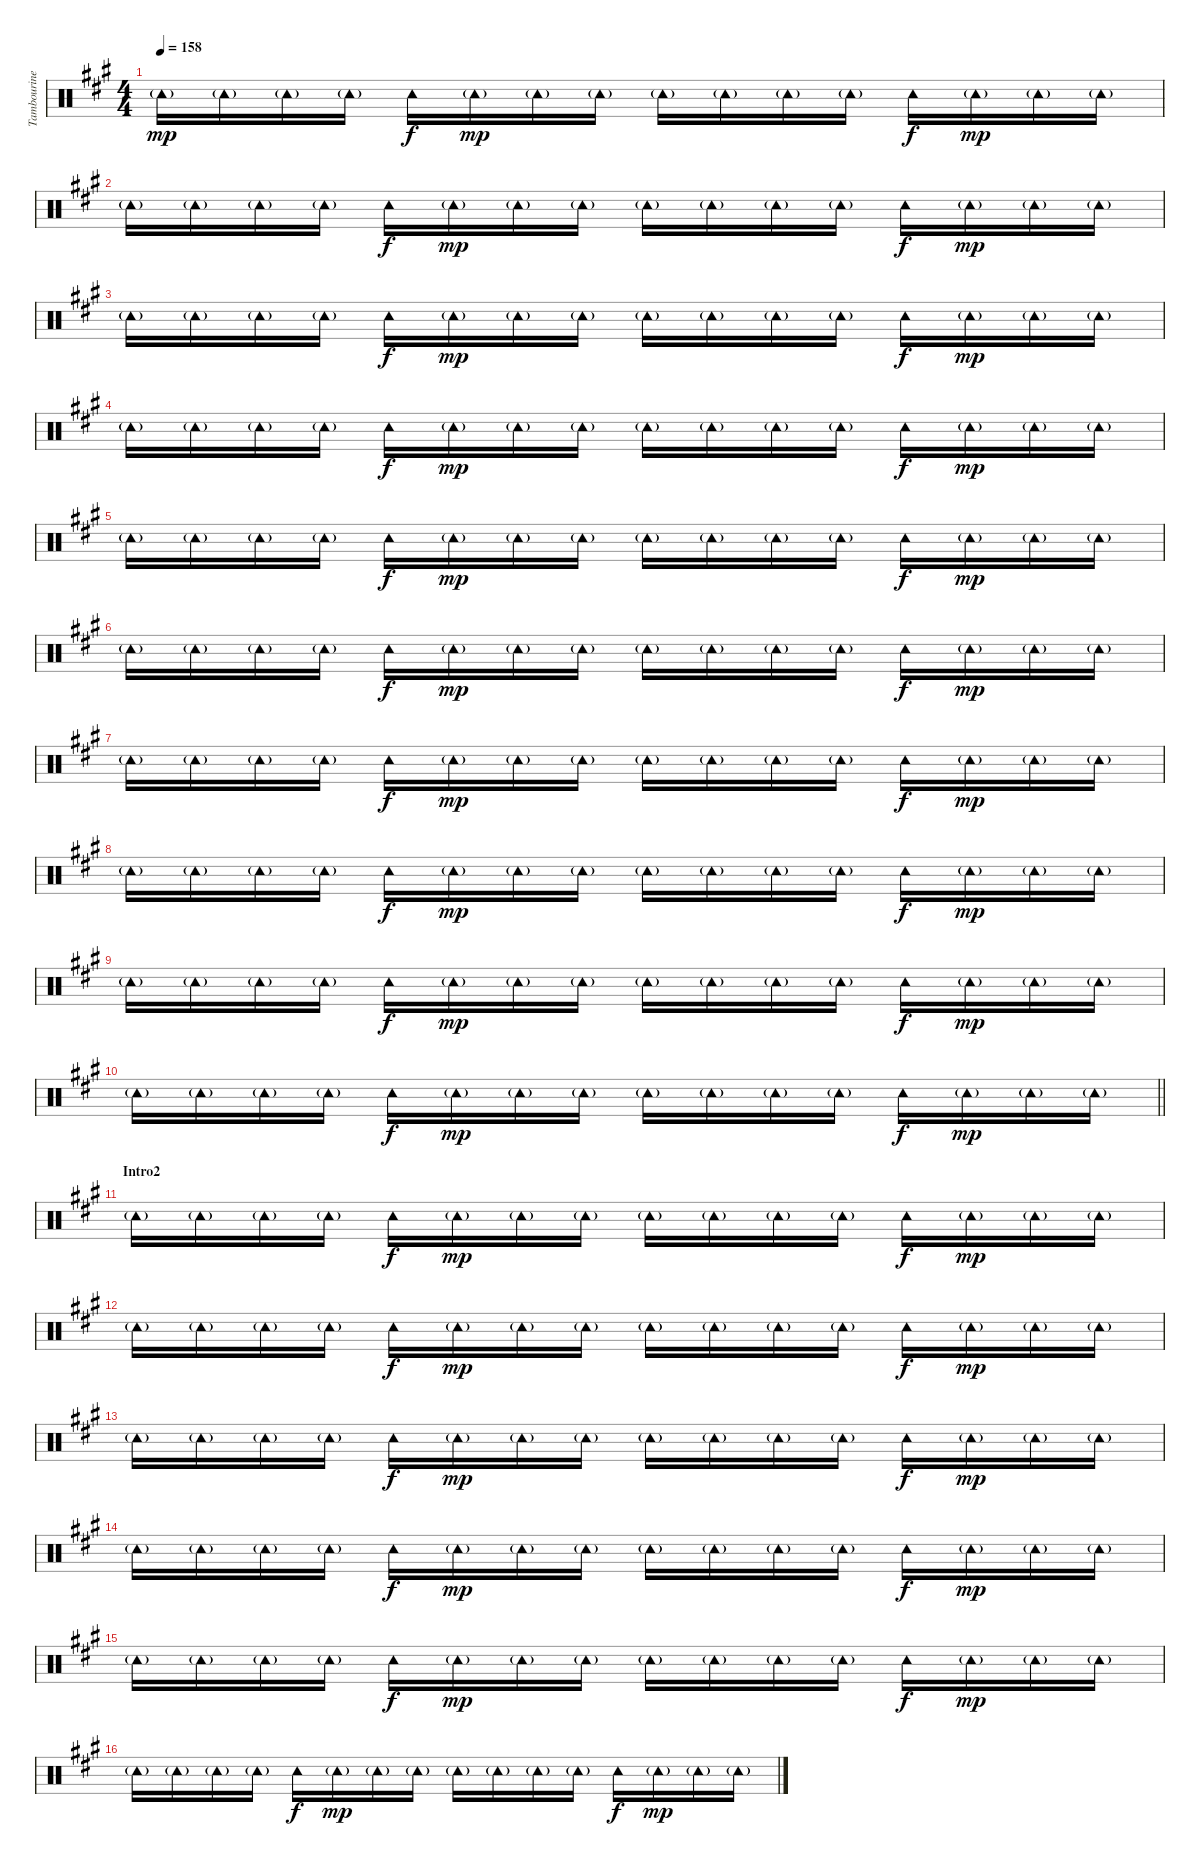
\track ("Tambourine" "Tambourine") {instrument percussion}
\staff {score}
\articulation defaults
\ts (4 4)
\tempo 158
\clef neutral
\ks a "Tambourine (hit)"{g}.16{dy mp} "Tambourine (hit)"{g}.16 "Tambourine (hit)"{g}.16 "Tambourine (hit)"{g}.16 "Tambourine (hit)".16{dy f} "Tambourine (hit)"{g}.16{dy mp} "Tambourine (hit)"{g}.16 "Tambourine (hit)"{g}.16 "Tambourine (hit)"{g}.16 "Tambourine (hit)"{g}.16 "Tambourine (hit)"{g}.16 "Tambourine (hit)"{g}.16 "Tambourine (hit)".16{dy f} "Tambourine (hit)"{g}.16{dy mp} "Tambourine (hit)"{g}.16 "Tambourine (hit)"{g}.16
|
"Tambourine (hit)"{g}.16 "Tambourine (hit)"{g}.16 "Tambourine (hit)"{g}.16 "Tambourine (hit)"{g}.16 "Tambourine (hit)".16{dy f} "Tambourine (hit)"{g}.16{dy mp} "Tambourine (hit)"{g}.16 "Tambourine (hit)"{g}.16 "Tambourine (hit)"{g}.16 "Tambourine (hit)"{g}.16 "Tambourine (hit)"{g}.16 "Tambourine (hit)"{g}.16 "Tambourine (hit)".16{dy f} "Tambourine (hit)"{g}.16{dy mp} "Tambourine (hit)"{g}.16 "Tambourine (hit)"{g}.16 |
"Tambourine (hit)"{g}.16 "Tambourine (hit)"{g}.16 "Tambourine (hit)"{g}.16 "Tambourine (hit)"{g}.16 "Tambourine (hit)".16{dy f} "Tambourine (hit)"{g}.16{dy mp} "Tambourine (hit)"{g}.16 "Tambourine (hit)"{g}.16 "Tambourine (hit)"{g}.16 "Tambourine (hit)"{g}.16 "Tambourine (hit)"{g}.16 "Tambourine (hit)"{g}.16 "Tambourine (hit)".16{dy f} "Tambourine (hit)"{g}.16{dy mp} "Tambourine (hit)"{g}.16 "Tambourine (hit)"{g}.16 |
"Tambourine (hit)"{g}.16 "Tambourine (hit)"{g}.16 "Tambourine (hit)"{g}.16 "Tambourine (hit)"{g}.16 "Tambourine (hit)".16{dy f} "Tambourine (hit)"{g}.16{dy mp} "Tambourine (hit)"{g}.16 "Tambourine (hit)"{g}.16 "Tambourine (hit)"{g}.16 "Tambourine (hit)"{g}.16 "Tambourine (hit)"{g}.16 "Tambourine (hit)"{g}.16 "Tambourine (hit)".16{dy f} "Tambourine (hit)"{g}.16{dy mp} "Tambourine (hit)"{g}.16 "Tambourine (hit)"{g}.16 |
"Tambourine (hit)"{g}.16 "Tambourine (hit)"{g}.16 "Tambourine (hit)"{g}.16 "Tambourine (hit)"{g}.16 "Tambourine (hit)".16{dy f} "Tambourine (hit)"{g}.16{dy mp} "Tambourine (hit)"{g}.16 "Tambourine (hit)"{g}.16 "Tambourine (hit)"{g}.16 "Tambourine (hit)"{g}.16 "Tambourine (hit)"{g}.16 "Tambourine (hit)"{g}.16 "Tambourine (hit)".16{dy f} "Tambourine (hit)"{g}.16{dy mp} "Tambourine (hit)"{g}.16 "Tambourine (hit)"{g}.16 |
"Tambourine (hit)"{g}.16 "Tambourine (hit)"{g}.16 "Tambourine (hit)"{g}.16 "Tambourine (hit)"{g}.16 "Tambourine (hit)".16{dy f} "Tambourine (hit)"{g}.16{dy mp} "Tambourine (hit)"{g}.16 "Tambourine (hit)"{g}.16 "Tambourine (hit)"{g}.16 "Tambourine (hit)"{g}.16 "Tambourine (hit)"{g}.16 "Tambourine (hit)"{g}.16 "Tambourine (hit)".16{dy f} "Tambourine (hit)"{g}.16{dy mp} "Tambourine (hit)"{g}.16 "Tambourine (hit)"{g}.16 |
"Tambourine (hit)"{g}.16 "Tambourine (hit)"{g}.16 "Tambourine (hit)"{g}.16 "Tambourine (hit)"{g}.16 "Tambourine (hit)".16{dy f} "Tambourine (hit)"{g}.16{dy mp} "Tambourine (hit)"{g}.16 "Tambourine (hit)"{g}.16 "Tambourine (hit)"{g}.16 "Tambourine (hit)"{g}.16 "Tambourine (hit)"{g}.16 "Tambourine (hit)"{g}.16 "Tambourine (hit)".16{dy f} "Tambourine (hit)"{g}.16{dy mp} "Tambourine (hit)"{g}.16 "Tambourine (hit)"{g}.16 |
"Tambourine (hit)"{g}.16 "Tambourine (hit)"{g}.16 "Tambourine (hit)"{g}.16 "Tambourine (hit)"{g}.16 "Tambourine (hit)".16{dy f} "Tambourine (hit)"{g}.16{dy mp} "Tambourine (hit)"{g}.16 "Tambourine (hit)"{g}.16 "Tambourine (hit)"{g}.16 "Tambourine (hit)"{g}.16 "Tambourine (hit)"{g}.16 "Tambourine (hit)"{g}.16 "Tambourine (hit)".16{dy f} "Tambourine (hit)"{g}.16{dy mp} "Tambourine (hit)"{g}.16 "Tambourine (hit)"{g}.16 |
"Tambourine (hit)"{g}.16 "Tambourine (hit)"{g}.16 "Tambourine (hit)"{g}.16 "Tambourine (hit)"{g}.16 "Tambourine (hit)".16{dy f} "Tambourine (hit)"{g}.16{dy mp} "Tambourine (hit)"{g}.16 "Tambourine (hit)"{g}.16 "Tambourine (hit)"{g}.16 "Tambourine (hit)"{g}.16 "Tambourine (hit)"{g}.16 "Tambourine (hit)"{g}.16 "Tambourine (hit)".16{dy f} "Tambourine (hit)"{g}.16{dy mp} "Tambourine (hit)"{g}.16 "Tambourine (hit)"{g}.16 |
\barLineRight lightlight "Tambourine (hit)"{g}.16 "Tambourine (hit)"{g}.16 "Tambourine (hit)"{g}.16 "Tambourine (hit)"{g}.16 "Tambourine (hit)".16{dy f} "Tambourine (hit)"{g}.16{dy mp} "Tambourine (hit)"{g}.16 "Tambourine (hit)"{g}.16 "Tambourine (hit)"{g}.16 "Tambourine (hit)"{g}.16 "Tambourine (hit)"{g}.16 "Tambourine (hit)"{g}.16 "Tambourine (hit)".16{dy f} "Tambourine (hit)"{g}.16{dy mp} "Tambourine (hit)"{g}.16 "Tambourine (hit)"{g}.16
|
\section ("" "Intro2")
"Tambourine (hit)"{g}.16 "Tambourine (hit)"{g}.16 "Tambourine (hit)"{g}.16 "Tambourine (hit)"{g}.16 "Tambourine (hit)".16{dy f} "Tambourine (hit)"{g}.16{dy mp} "Tambourine (hit)"{g}.16 "Tambourine (hit)"{g}.16 "Tambourine (hit)"{g}.16 "Tambourine (hit)"{g}.16 "Tambourine (hit)"{g}.16 "Tambourine (hit)"{g}.16 "Tambourine (hit)".16{dy f} "Tambourine (hit)"{g}.16{dy mp} "Tambourine (hit)"{g}.16 "Tambourine (hit)"{g}.16 |
"Tambourine (hit)"{g}.16 "Tambourine (hit)"{g}.16 "Tambourine (hit)"{g}.16 "Tambourine (hit)"{g}.16 "Tambourine (hit)".16{dy f} "Tambourine (hit)"{g}.16{dy mp} "Tambourine (hit)"{g}.16 "Tambourine (hit)"{g}.16 "Tambourine (hit)"{g}.16 "Tambourine (hit)"{g}.16 "Tambourine (hit)"{g}.16 "Tambourine (hit)"{g}.16 "Tambourine (hit)".16{dy f} "Tambourine (hit)"{g}.16{dy mp} "Tambourine (hit)"{g}.16 "Tambourine (hit)"{g}.16 |
"Tambourine (hit)"{g}.16 "Tambourine (hit)"{g}.16 "Tambourine (hit)"{g}.16 "Tambourine (hit)"{g}.16 "Tambourine (hit)".16{dy f} "Tambourine (hit)"{g}.16{dy mp} "Tambourine (hit)"{g}.16 "Tambourine (hit)"{g}.16 "Tambourine (hit)"{g}.16 "Tambourine (hit)"{g}.16 "Tambourine (hit)"{g}.16 "Tambourine (hit)"{g}.16 "Tambourine (hit)".16{dy f} "Tambourine (hit)"{g}.16{dy mp} "Tambourine (hit)"{g}.16 "Tambourine (hit)"{g}.16 |
"Tambourine (hit)"{g}.16 "Tambourine (hit)"{g}.16 "Tambourine (hit)"{g}.16 "Tambourine (hit)"{g}.16 "Tambourine (hit)".16{dy f} "Tambourine (hit)"{g}.16{dy mp} "Tambourine (hit)"{g}.16 "Tambourine (hit)"{g}.16 "Tambourine (hit)"{g}.16 "Tambourine (hit)"{g}.16 "Tambourine (hit)"{g}.16 "Tambourine (hit)"{g}.16 "Tambourine (hit)".16{dy f} "Tambourine (hit)"{g}.16{dy mp} "Tambourine (hit)"{g}.16 "Tambourine (hit)"{g}.16 |
"Tambourine (hit)"{g}.16 "Tambourine (hit)"{g}.16 "Tambourine (hit)"{g}.16 "Tambourine (hit)"{g}.16 "Tambourine (hit)".16{dy f} "Tambourine (hit)"{g}.16{dy mp} "Tambourine (hit)"{g}.16 "Tambourine (hit)"{g}.16 "Tambourine (hit)"{g}.16 "Tambourine (hit)"{g}.16 "Tambourine (hit)"{g}.16 "Tambourine (hit)"{g}.16 "Tambourine (hit)".16{dy f} "Tambourine (hit)"{g}.16{dy mp} "Tambourine (hit)"{g}.16 "Tambourine (hit)"{g}.16 |
"Tambourine (hit)"{g}.16 "Tambourine (hit)"{g}.16 "Tambourine (hit)"{g}.16 "Tambourine (hit)"{g}.16 "Tambourine (hit)".16{dy f} "Tambourine (hit)"{g}.16{dy mp} "Tambourine (hit)"{g}.16 "Tambourine (hit)"{g}.16 "Tambourine (hit)"{g}.16 "Tambourine (hit)"{g}.16 "Tambourine (hit)"{g}.16 "Tambourine (hit)"{g}.16 "Tambourine (hit)".16{dy f} "Tambourine (hit)"{g}.16{dy mp} "Tambourine (hit)"{g}.16 "Tambourine (hit)"{g}.16
